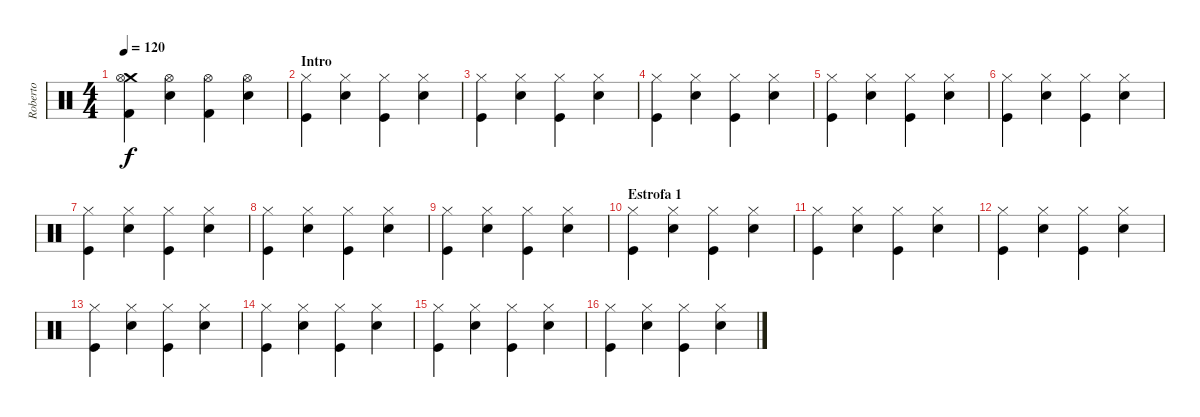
\track ("Roberto" "Roberto") {instrument percussion}
\staff {score}
\articulation defaults
\ts (4 4)
\tempo 120
\clef neutral
\ks c
("Crash medium (hit)" "Hi-Hat (open)" "Kick (hit) 2").4{dy f} ("Hi-Hat (open)" "Snare (hit) 2").4 ("Hi-Hat (open)" "Kick (hit) 2").4 ("Hi-Hat (open)" "Snare (hit) 2").4 |
\section ("" "Intro")
("Hi-Hat (closed)" "Kick (hit)").4 ("Hi-Hat (closed)" "Snare (hit) 2").4 ("Hi-Hat (closed)" "Kick (hit)").4 ("Hi-Hat (closed)" "Snare (hit) 2").4 |
("Hi-Hat (closed)" "Kick (hit)").4 ("Hi-Hat (closed)" "Snare (hit) 2").4 ("Hi-Hat (closed)" "Kick (hit)").4 ("Hi-Hat (closed)" "Snare (hit) 2").4 |
("Hi-Hat (closed)" "Kick (hit)").4 ("Hi-Hat (closed)" "Snare (hit) 2").4 ("Hi-Hat (closed)" "Kick (hit)").4 ("Hi-Hat (closed)" "Snare (hit) 2").4 |
("Hi-Hat (closed)" "Kick (hit)").4 ("Hi-Hat (closed)" "Snare (hit) 2").4 ("Hi-Hat (closed)" "Kick (hit)").4 ("Hi-Hat (closed)" "Snare (hit) 2").4 |
("Hi-Hat (closed)" "Kick (hit)").4 ("Hi-Hat (closed)" "Snare (hit) 2").4 ("Hi-Hat (closed)" "Kick (hit)").4 ("Hi-Hat (closed)" "Snare (hit) 2").4 |
("Hi-Hat (closed)" "Kick (hit)").4 ("Hi-Hat (closed)" "Snare (hit) 2").4 ("Hi-Hat (closed)" "Kick (hit)").4 ("Hi-Hat (closed)" "Snare (hit) 2").4 |
("Hi-Hat (closed)" "Kick (hit)").4 ("Hi-Hat (closed)" "Snare (hit) 2").4 ("Hi-Hat (closed)" "Kick (hit)").4 ("Hi-Hat (closed)" "Snare (hit) 2").4 |
("Hi-Hat (closed)" "Kick (hit)").4 ("Hi-Hat (closed)" "Snare (hit) 2").4 ("Hi-Hat (closed)" "Kick (hit)").4 ("Hi-Hat (closed)" "Snare (hit) 2").4 |
\section ("" "Estrofa 1")
("Hi-Hat (closed)" "Kick (hit)").4 ("Hi-Hat (closed)" "Snare (hit) 2").4 ("Hi-Hat (closed)" "Kick (hit)").4 ("Hi-Hat (closed)" "Snare (hit) 2").4 |
("Hi-Hat (closed)" "Kick (hit)").4 ("Hi-Hat (closed)" "Snare (hit) 2").4 ("Hi-Hat (closed)" "Kick (hit)").4 ("Hi-Hat (closed)" "Snare (hit) 2").4 |
("Hi-Hat (closed)" "Kick (hit)").4 ("Hi-Hat (closed)" "Snare (hit) 2").4 ("Hi-Hat (closed)" "Kick (hit)").4 ("Hi-Hat (closed)" "Snare (hit) 2").4 |
("Hi-Hat (closed)" "Kick (hit)").4 ("Hi-Hat (closed)" "Snare (hit) 2").4 ("Hi-Hat (closed)" "Kick (hit)").4 ("Hi-Hat (closed)" "Snare (hit) 2").4 |
("Hi-Hat (closed)" "Kick (hit)").4 ("Hi-Hat (closed)" "Snare (hit) 2").4 ("Hi-Hat (closed)" "Kick (hit)").4 ("Hi-Hat (closed)" "Snare (hit) 2").4 |
("Hi-Hat (closed)" "Kick (hit)").4 ("Hi-Hat (closed)" "Snare (hit) 2").4 ("Hi-Hat (closed)" "Kick (hit)").4 ("Hi-Hat (closed)" "Snare (hit) 2").4 |
("Hi-Hat (closed)" "Kick (hit)").4 ("Hi-Hat (closed)" "Snare (hit) 2").4 ("Hi-Hat (closed)" "Kick (hit)").4 ("Hi-Hat (closed)" "Snare (hit) 2").4
